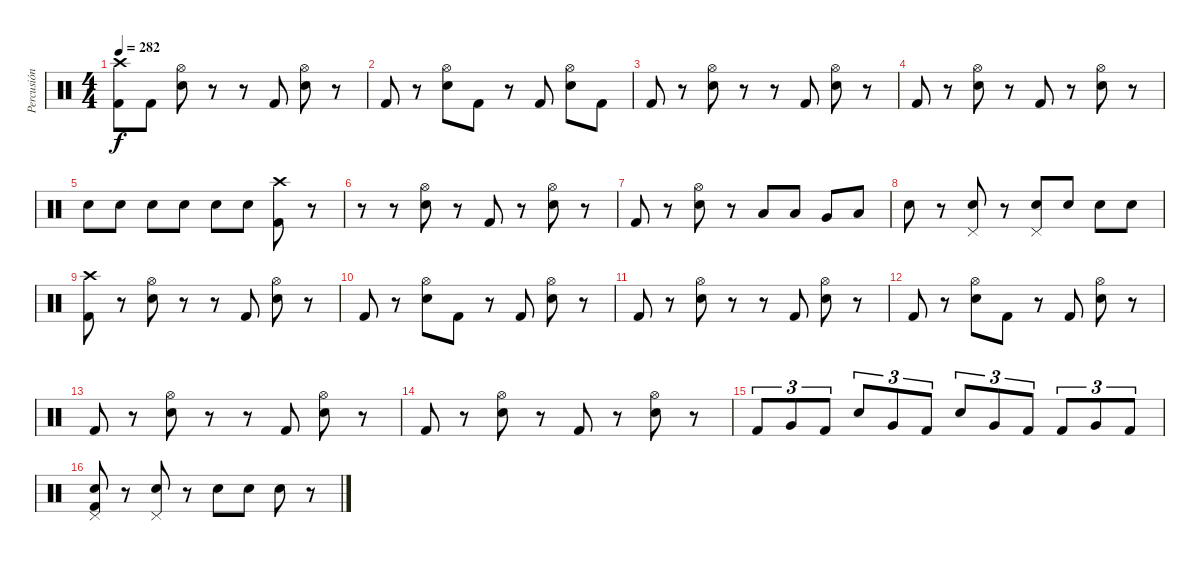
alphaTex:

\track ("Percusión" "Percusión") {instrument percussion}
\staff {score}
\articulation defaults
\ts (4 4)
\tempo 282
\clef neutral
\ks c
("Kick (hit) 2" "Crash high (hit)").8{dy f} "Kick (hit) 2".8 ("Snare (hit) 2" "Hi-Hat (open)").8 r.8 r.8 "Kick (hit) 2".8 ("Snare (hit) 2" "Hi-Hat (open)").8 r.8 |
"Kick (hit) 2".8 r.8 ("Snare (hit) 2" "Hi-Hat (open)").8 "Kick (hit) 2".8 r.8 "Kick (hit) 2".8 ("Snare (hit) 2" "Hi-Hat (open)").8 "Kick (hit) 2".8 |
"Kick (hit) 2".8 r.8 ("Snare (hit) 2" "Hi-Hat (open)").8 r.8 r.8 "Kick (hit) 2".8 ("Snare (hit) 2" "Hi-Hat (open)").8 r.8 |
"Kick (hit) 2".8 r.8 ("Snare (hit) 2" "Hi-Hat (open)").8 r.8 "Kick (hit) 2".8 r.8 ("Snare (hit) 2" "Hi-Hat (open)").8 r.8 |
"Snare (hit) 2".8 "Snare (hit) 2".8 "Snare (hit) 2".8 "Snare (hit) 2".8 "Snare (hit) 2".8 "Snare (hit) 2".8 ("Kick (hit) 2" "Crash high (hit)").8 r.8 |
r.8 r.8 ("Snare (hit) 2" "Hi-Hat (open)").8 r.8 "Kick (hit) 2".8 r.8 ("Snare (hit) 2" "Hi-Hat (open)").8 r.8 |
"Kick (hit) 2".8 r.8 ("Snare (hit) 2" "Hi-Hat (open)").8 r.8 "Low Tom (hit)".8 "Low Tom (hit)".8 "Very Low Tom (hit)".8 "Low Floor Tom (hit)".8 |
"Snare (hit) 2".8 r.8 ("Snare (hit) 2" "Pedal Hi-Hat (hit)").8 r.8 ("Snare (hit) 2" "Pedal Hi-Hat (hit)").8 "Snare (hit) 2".8 "Snare (hit) 2".8 "Snare (hit) 2".8 |
("Kick (hit) 2" "Crash high (hit)").8 r.8 ("Snare (hit) 2" "Hi-Hat (open)").8 r.8 r.8 "Kick (hit) 2".8 ("Snare (hit) 2" "Hi-Hat (open)").8 r.8 |
"Kick (hit) 2".8 r.8 ("Snare (hit) 2" "Hi-Hat (open)").8 "Kick (hit) 2".8 r.8 "Kick (hit) 2".8 ("Snare (hit) 2" "Hi-Hat (open)").8 r.8 |
"Kick (hit) 2".8 r.8 ("Snare (hit) 2" "Hi-Hat (open)").8 r.8 r.8 "Kick (hit) 2".8 ("Snare (hit) 2" "Hi-Hat (open)").8 r.8 |
"Kick (hit) 2".8 r.8 ("Snare (hit) 2" "Hi-Hat (open)").8 "Kick (hit) 2".8 r.8 "Kick (hit) 2".8 ("Snare (hit) 2" "Hi-Hat (open)").8 r.8 |
"Kick (hit) 2".8 r.8 ("Snare (hit) 2" "Hi-Hat (open)").8 r.8 r.8 "Kick (hit) 2".8 ("Snare (hit) 2" "Hi-Hat (open)").8 r.8 |
"Kick (hit) 2".8 r.8 ("Snare (hit) 2" "Hi-Hat (open)").8 r.8 "Kick (hit) 2".8 r.8 ("Snare (hit) 2" "Hi-Hat (open)").8 r.8 |
"Kick (hit) 2".8{tu (3 2)} "Very Low Tom (hit)".8{tu (3 2)} "Kick (hit) 2".8{tu (3 2)} "Snare (hit) 2".8{tu (3 2)} "Very Low Tom (hit)".8{tu (3 2)} "Kick (hit) 2".8{tu (3 2)} "Snare (hit) 2".8{tu (3 2)} "Very Low Tom (hit)".8{tu (3 2)} "Kick (hit) 2".8{tu (3 2)} "Kick (hit) 2".8{tu (3 2)} "Very Low Tom (hit)".8{tu (3 2)} "Kick (hit) 2".8{tu (3 2)} |
("Kick (hit) 2" "Snare (hit) 2" "Pedal Hi-Hat (hit)").8 r.8 ("Snare (hit) 2" "Pedal Hi-Hat (hit)").8 r.8 "Snare (hit) 2".8 "Snare (hit) 2".8 "Snare (hit) 2".8 r.8
